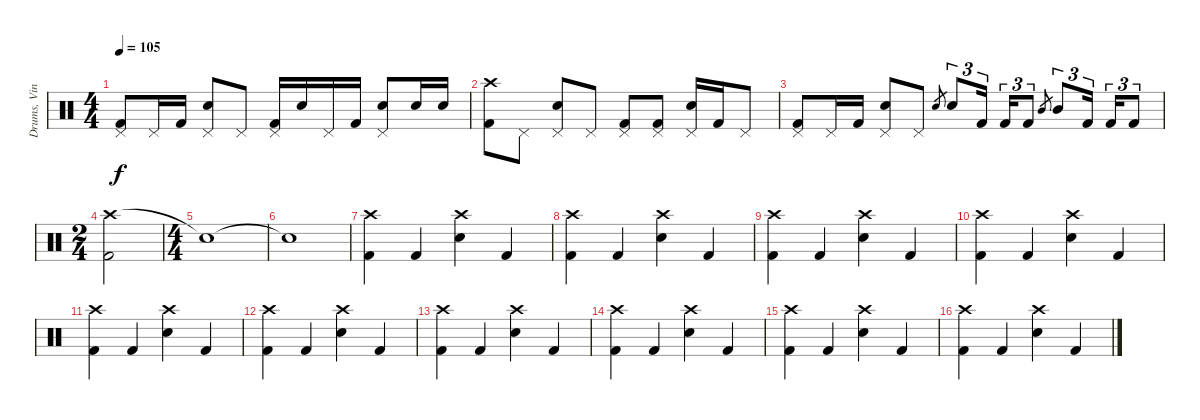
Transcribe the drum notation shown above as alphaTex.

\track ("Drums, Vinnie" "Drums, Vin") {instrument percussion}
\staff {score}
\articulation defaults
\ts (4 4)
\tempo 105
\clef neutral
\ks c
("Pedal Hi-Hat (hit)" "Kick (hit) 2").8{dy f} "Pedal Hi-Hat (hit)".16 "Kick (hit) 2".16 ("Pedal Hi-Hat (hit)" "Electric Snare (hit)").8 "Pedal Hi-Hat (hit)".8 ("Pedal Hi-Hat (hit)" "Kick (hit) 2").16 "Electric Snare (hit)".16 "Pedal Hi-Hat (hit)".16 "Kick (hit) 2".16 ("Pedal Hi-Hat (hit)" "Electric Snare (hit)").8 "Electric Snare (hit)".16 "Electric Snare (hit)".16 |
("Crash high (hit)" "Kick (hit) 2").8 "Pedal Hi-Hat (hit)".8 ("Pedal Hi-Hat (hit)" "Electric Snare (hit)").8 "Pedal Hi-Hat (hit)".8 ("Pedal Hi-Hat (hit)" "Kick (hit) 2").8 ("Pedal Hi-Hat (hit)" "Kick (hit) 2").8 ("Pedal Hi-Hat (hit)" "Electric Snare (hit)").16 "Kick (hit) 2".16 "Pedal Hi-Hat (hit)".8 |
("Pedal Hi-Hat (hit)" "Kick (hit) 2").8 "Pedal Hi-Hat (hit)".16 "Kick (hit) 2".16 ("Pedal Hi-Hat (hit)" "Electric Snare (hit)").8 "Pedal Hi-Hat (hit)".8 "Electric Snare (hit)".8{gr} "Electric Snare (hit)".8{tu (3 2)} "Kick (hit) 2".16{tu (3 2)} "Kick (hit) 2".16{tu (3 2)} "Kick (hit) 2".8{tu (3 2)} "Mid Tom (hit)".8{gr} "Mid Tom (hit)".8{tu (3 2)} "Kick (hit) 2".16{tu (3 2)} "Kick (hit) 2".16{tu (3 2)} "Kick (hit) 2".8{tu (3 2)} |
\ts (2 4)
("Crash high (hit)" "Kick (hit) 2").2 |
\ts (4 4)
"Snare (hit)"{t}.1 |
"Snare (hit)"{t}.1 |
("Crash high (hit)" "Kick (hit) 2").4 "Kick (hit) 2".4 ("Crash high (hit)" "Electric Snare (hit)").4 "Kick (hit) 2".4 |
("Crash high (hit)" "Kick (hit) 2").4 "Kick (hit) 2".4 ("Crash high (hit)" "Electric Snare (hit)").4 "Kick (hit) 2".4 |
("Crash high (hit)" "Kick (hit) 2").4 "Kick (hit) 2".4 ("Crash high (hit)" "Electric Snare (hit)").4 "Kick (hit) 2".4 |
("Crash high (hit)" "Kick (hit) 2").4 "Kick (hit) 2".4 ("Crash high (hit)" "Electric Snare (hit)").4 "Kick (hit) 2".4 |
("Crash high (hit)" "Kick (hit) 2").4 "Kick (hit) 2".4 ("Crash high (hit)" "Electric Snare (hit)").4 "Kick (hit) 2".4 |
("Crash high (hit)" "Kick (hit) 2").4 "Kick (hit) 2".4 ("Crash high (hit)" "Electric Snare (hit)").4 "Kick (hit) 2".4 |
("Crash high (hit)" "Kick (hit) 2").4 "Kick (hit) 2".4 ("Crash high (hit)" "Electric Snare (hit)").4 "Kick (hit) 2".4 |
("Crash high (hit)" "Kick (hit) 2").4 "Kick (hit) 2".4 ("Crash high (hit)" "Electric Snare (hit)").4 "Kick (hit) 2".4 |
("Crash high (hit)" "Kick (hit) 2").4 "Kick (hit) 2".4 ("Crash high (hit)" "Electric Snare (hit)").4 "Kick (hit) 2".4 |
("Crash high (hit)" "Kick (hit) 2").4 "Kick (hit) 2".4 ("Crash high (hit)" "Electric Snare (hit)").4 "Kick (hit) 2".4
